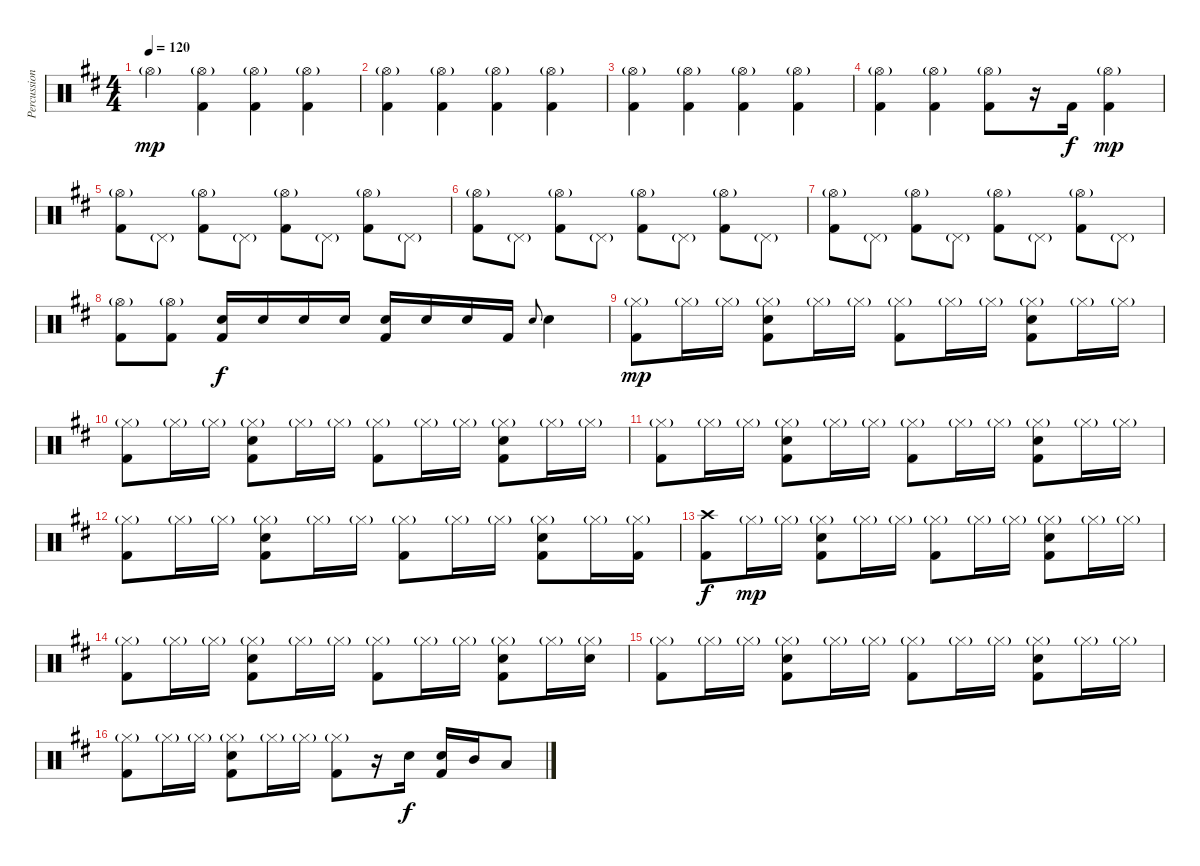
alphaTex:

\track ("Percussion" "Percussion") {instrument percussion}
\staff {score}
\articulation defaults
\ts (4 4)
\tempo 120
\clef neutral
\ks d "Hi-Hat (open)"{g}.4{dy mp}
("Hi-Hat (open)"{g} "Kick (hit) 2").4 ("Hi-Hat (open)"{g} "Kick (hit) 2").4 ("Hi-Hat (open)"{g} "Kick (hit) 2").4 |
("Hi-Hat (open)"{g} "Kick (hit) 2").4 ("Hi-Hat (open)"{g} "Kick (hit) 2").4 ("Hi-Hat (open)"{g} "Kick (hit) 2").4 ("Hi-Hat (open)"{g} "Kick (hit) 2").4 |
("Hi-Hat (open)"{g} "Kick (hit) 2").4 ("Hi-Hat (open)"{g} "Kick (hit) 2").4 ("Hi-Hat (open)"{g} "Kick (hit) 2").4 ("Hi-Hat (open)"{g} "Kick (hit) 2").4 |
("Hi-Hat (open)"{g} "Kick (hit) 2").4 ("Hi-Hat (open)"{g} "Kick (hit) 2").4 ("Hi-Hat (open)"{g} "Kick (hit) 2").8 r.16 "Kick (hit) 2".16{dy f} ("Hi-Hat (open)"{g} "Kick (hit) 2").4{dy mp} |
("Hi-Hat (open)"{g} "Kick (hit) 2").8 "Pedal Hi-Hat (hit)"{g}.8 ("Hi-Hat (open)"{g} "Kick (hit) 2").8 "Pedal Hi-Hat (hit)"{g}.8 ("Hi-Hat (open)"{g} "Kick (hit) 2").8 "Pedal Hi-Hat (hit)"{g}.8 ("Hi-Hat (open)"{g} "Kick (hit) 2").8 "Pedal Hi-Hat (hit)"{g}.8 |
("Hi-Hat (open)"{g} "Kick (hit) 2").8 "Pedal Hi-Hat (hit)"{g}.8 ("Hi-Hat (open)"{g} "Kick (hit) 2").8 "Pedal Hi-Hat (hit)"{g}.8 ("Hi-Hat (open)"{g} "Kick (hit) 2").8 "Pedal Hi-Hat (hit)"{g}.8 ("Hi-Hat (open)"{g} "Kick (hit) 2").8 "Pedal Hi-Hat (hit)"{g}.8 |
("Hi-Hat (open)"{g} "Kick (hit) 2").8 "Pedal Hi-Hat (hit)"{g}.8 ("Hi-Hat (open)"{g} "Kick (hit) 2").8 "Pedal Hi-Hat (hit)"{g}.8 ("Hi-Hat (open)"{g} "Kick (hit) 2").8 "Pedal Hi-Hat (hit)"{g}.8 ("Hi-Hat (open)"{g} "Kick (hit) 2").8 "Pedal Hi-Hat (hit)"{g}.8 |
("Hi-Hat (open)"{g} "Kick (hit) 2").8 ("Hi-Hat (open)"{g} "Kick (hit) 2").8 ("Electric Snare (hit)" "Kick (hit) 2").16{dy f} "Electric Snare (hit)".16 "Electric Snare (hit)".16 "Electric Snare (hit)".16 ("Electric Snare (hit)" "Kick (hit) 2").16 "Electric Snare (hit)".16 "Electric Snare (hit)".16 "Kick (hit) 2".16 "Electric Snare (hit)".8{gr onbeat} "Electric Snare (hit)".4 |
("Hi-Hat (closed)"{g} "Kick (hit) 2").8{dy mp} "Hi-Hat (closed)"{g}.16 "Hi-Hat (closed)"{g}.16 ("Hi-Hat (closed)"{g} "Snare (hit) 2" "Kick (hit) 2").8 "Hi-Hat (closed)"{g}.16 "Hi-Hat (closed)"{g}.16 ("Hi-Hat (closed)"{g} "Kick (hit) 2").8 "Hi-Hat (closed)"{g}.16 "Hi-Hat (closed)"{g}.16 ("Hi-Hat (closed)"{g} "Snare (hit) 2" "Kick (hit) 2").8 "Hi-Hat (closed)"{g}.16 "Hi-Hat (closed)"{g}.16 |
("Hi-Hat (closed)"{g} "Kick (hit) 2").8 "Hi-Hat (closed)"{g}.16 "Hi-Hat (closed)"{g}.16 ("Hi-Hat (closed)"{g} "Snare (hit) 2" "Kick (hit) 2").8 "Hi-Hat (closed)"{g}.16 "Hi-Hat (closed)"{g}.16 ("Hi-Hat (closed)"{g} "Kick (hit) 2").8 "Hi-Hat (closed)"{g}.16 "Hi-Hat (closed)"{g}.16 ("Hi-Hat (closed)"{g} "Snare (hit) 2" "Kick (hit) 2").8 "Hi-Hat (closed)"{g}.16 "Hi-Hat (closed)"{g}.16 |
("Hi-Hat (closed)"{g} "Kick (hit) 2").8 "Hi-Hat (closed)"{g}.16 "Hi-Hat (closed)"{g}.16 ("Hi-Hat (closed)"{g} "Snare (hit) 2" "Kick (hit) 2").8 "Hi-Hat (closed)"{g}.16 "Hi-Hat (closed)"{g}.16 ("Hi-Hat (closed)"{g} "Kick (hit) 2").8 "Hi-Hat (closed)"{g}.16 "Hi-Hat (closed)"{g}.16 ("Hi-Hat (closed)"{g} "Snare (hit) 2" "Kick (hit) 2").8 "Hi-Hat (closed)"{g}.16 "Hi-Hat (closed)"{g}.16 |
("Hi-Hat (closed)"{g} "Kick (hit) 2").8 "Hi-Hat (closed)"{g}.16 "Hi-Hat (closed)"{g}.16 ("Hi-Hat (closed)"{g} "Snare (hit) 2" "Kick (hit) 2").8 "Hi-Hat (closed)"{g}.16 "Hi-Hat (closed)"{g}.16 ("Hi-Hat (closed)"{g} "Kick (hit) 2").8 "Hi-Hat (closed)"{g}.16 "Hi-Hat (closed)"{g}.16 ("Hi-Hat (closed)"{g} "Snare (hit) 2" "Kick (hit) 2").8 "Hi-Hat (closed)"{g}.16 ("Hi-Hat (closed)"{g} "Kick (hit) 2").16 |
("Crash high (hit)" "Kick (hit) 2").8{dy f} "Hi-Hat (closed)"{g}.16{dy mp} "Hi-Hat (closed)"{g}.16 ("Hi-Hat (closed)"{g} "Snare (hit) 2" "Kick (hit) 2").8 "Hi-Hat (closed)"{g}.16 "Hi-Hat (closed)"{g}.16 ("Hi-Hat (closed)"{g} "Kick (hit) 2").8 "Hi-Hat (closed)"{g}.16 "Hi-Hat (closed)"{g}.16 ("Hi-Hat (closed)"{g} "Snare (hit) 2" "Kick (hit) 2").8 "Hi-Hat (closed)"{g}.16 "Hi-Hat (closed)"{g}.16 |
("Hi-Hat (closed)"{g} "Kick (hit) 2").8 "Hi-Hat (closed)"{g}.16 "Hi-Hat (closed)"{g}.16 ("Hi-Hat (closed)"{g} "Snare (hit) 2" "Kick (hit) 2").8 "Hi-Hat (closed)"{g}.16 "Hi-Hat (closed)"{g}.16 ("Hi-Hat (closed)"{g} "Kick (hit) 2").8 "Hi-Hat (closed)"{g}.16 "Hi-Hat (closed)"{g}.16 ("Hi-Hat (closed)"{g} "Snare (hit) 2" "Kick (hit) 2").8 "Hi-Hat (closed)"{g}.16 ("Hi-Hat (closed)"{g} "Snare (hit) 2").16 |
("Hi-Hat (closed)"{g} "Kick (hit) 2").8 "Hi-Hat (closed)"{g}.16 "Hi-Hat (closed)"{g}.16 ("Hi-Hat (closed)"{g} "Snare (hit) 2" "Kick (hit) 2").8 "Hi-Hat (closed)"{g}.16 "Hi-Hat (closed)"{g}.16 ("Hi-Hat (closed)"{g} "Kick (hit) 2").8 "Hi-Hat (closed)"{g}.16 "Hi-Hat (closed)"{g}.16 ("Hi-Hat (closed)"{g} "Snare (hit) 2" "Kick (hit) 2").8 "Hi-Hat (closed)"{g}.16 "Hi-Hat (closed)"{g}.16 |
("Hi-Hat (closed)"{g} "Kick (hit) 2").8 "Hi-Hat (closed)"{g}.16 "Hi-Hat (closed)"{g}.16 ("Hi-Hat (closed)"{g} "Snare (hit) 2" "Kick (hit) 2").8 "Hi-Hat (closed)"{g}.16 "Hi-Hat (closed)"{g}.16 ("Hi-Hat (closed)"{g} "Kick (hit) 2").8 r.16 "Snare (hit) 2".16{dy f} ("Snare (hit) 2" "Kick (hit) 2").16 "Mid Tom (hit)".16 "Low Tom (hit)".8
